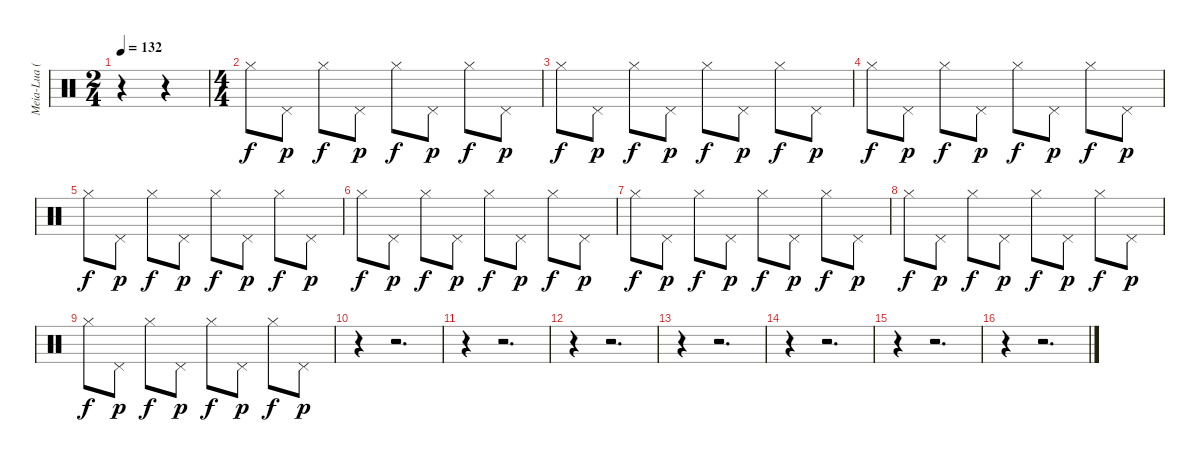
\track ("Meia-Lua (hehe)" "Meia-Lua (") {instrument percussion}
\staff {score}
\articulation defaults
\ts (2 4)
\tempo 132
\clef neutral
\ks c
r.4{dy p} r.4 |
\ts (4 4)
"Hi-Hat (closed)".8{dy f} "Pedal Hi-Hat (hit)".8{dy p} "Hi-Hat (closed)".8{dy f} "Pedal Hi-Hat (hit)".8{dy p} "Hi-Hat (closed)".8{dy f} "Pedal Hi-Hat (hit)".8{dy p} "Hi-Hat (closed)".8{dy f} "Pedal Hi-Hat (hit)".8{dy p} |
"Hi-Hat (closed)".8{dy f} "Pedal Hi-Hat (hit)".8{dy p} "Hi-Hat (closed)".8{dy f} "Pedal Hi-Hat (hit)".8{dy p} "Hi-Hat (closed)".8{dy f} "Pedal Hi-Hat (hit)".8{dy p} "Hi-Hat (closed)".8{dy f} "Pedal Hi-Hat (hit)".8{dy p} |
"Hi-Hat (closed)".8{dy f} "Pedal Hi-Hat (hit)".8{dy p} "Hi-Hat (closed)".8{dy f} "Pedal Hi-Hat (hit)".8{dy p} "Hi-Hat (closed)".8{dy f} "Pedal Hi-Hat (hit)".8{dy p} "Hi-Hat (closed)".8{dy f} "Pedal Hi-Hat (hit)".8{dy p} |
"Hi-Hat (closed)".8{dy f} "Pedal Hi-Hat (hit)".8{dy p} "Hi-Hat (closed)".8{dy f} "Pedal Hi-Hat (hit)".8{dy p} "Hi-Hat (closed)".8{dy f} "Pedal Hi-Hat (hit)".8{dy p} "Hi-Hat (closed)".8{dy f} "Pedal Hi-Hat (hit)".8{dy p} |
"Hi-Hat (closed)".8{dy f} "Pedal Hi-Hat (hit)".8{dy p} "Hi-Hat (closed)".8{dy f} "Pedal Hi-Hat (hit)".8{dy p} "Hi-Hat (closed)".8{dy f} "Pedal Hi-Hat (hit)".8{dy p} "Hi-Hat (closed)".8{dy f} "Pedal Hi-Hat (hit)".8{dy p} |
"Hi-Hat (closed)".8{dy f} "Pedal Hi-Hat (hit)".8{dy p} "Hi-Hat (closed)".8{dy f} "Pedal Hi-Hat (hit)".8{dy p} "Hi-Hat (closed)".8{dy f} "Pedal Hi-Hat (hit)".8{dy p} "Hi-Hat (closed)".8{dy f} "Pedal Hi-Hat (hit)".8{dy p} |
"Hi-Hat (closed)".8{dy f} "Pedal Hi-Hat (hit)".8{dy p} "Hi-Hat (closed)".8{dy f} "Pedal Hi-Hat (hit)".8{dy p} "Hi-Hat (closed)".8{dy f} "Pedal Hi-Hat (hit)".8{dy p} "Hi-Hat (closed)".8{dy f} "Pedal Hi-Hat (hit)".8{dy p} |
"Hi-Hat (closed)".8{dy f} "Pedal Hi-Hat (hit)".8{dy p} "Hi-Hat (closed)".8{dy f} "Pedal Hi-Hat (hit)".8{dy p} "Hi-Hat (closed)".8{dy f} "Pedal Hi-Hat (hit)".8{dy p} "Hi-Hat (closed)".8{dy f} "Pedal Hi-Hat (hit)".8{dy p} |
r.4 r.2{d} |
r.4 r.2{d} |
r.4 r.2{d} |
r.4 r.2{d} |
r.4 r.2{d} |
r.4 r.2{d} |
r.4 r.2{d}
